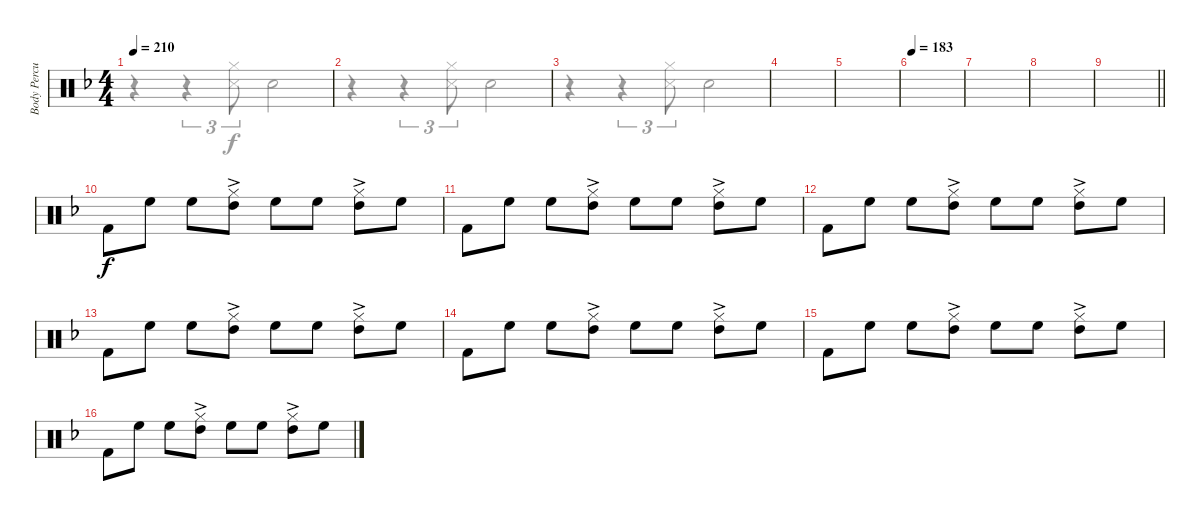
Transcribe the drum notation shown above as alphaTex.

\track ("Body Percussion" "Body Percu") {instrument percussion}
\staff {score}
\articulation defaults
\voice
\ts (4 4)
\tempo 210
\clef neutral
\ks dminor
|
|
|
|
|
\tempo 183
|
|
|
\barLineRight lightlight
|
"Kick (hit) 2".8{dy f} "High Floor Tom (hit)".8 "High Floor Tom (hit)".8 ("Hi-Hat (closed)" "High Tom (hit)"{ac}).8 "High Floor Tom (hit)".8 "High Floor Tom (hit)".8 ("Hi-Hat (closed)" "High Tom (hit)"{ac}).8 "High Floor Tom (hit)".8 |
"Kick (hit) 2".8 "High Floor Tom (hit)".8 "High Floor Tom (hit)".8 ("Hi-Hat (closed)" "High Tom (hit)"{ac}).8 "High Floor Tom (hit)".8 "High Floor Tom (hit)".8 ("Hi-Hat (closed)" "High Tom (hit)"{ac}).8 "High Floor Tom (hit)".8 |
"Kick (hit) 2".8 "High Floor Tom (hit)".8 "High Floor Tom (hit)".8 ("Hi-Hat (closed)" "High Tom (hit)"{ac}).8 "High Floor Tom (hit)".8 "High Floor Tom (hit)".8 ("Hi-Hat (closed)" "High Tom (hit)"{ac}).8 "High Floor Tom (hit)".8 |
"Kick (hit) 2".8 "High Floor Tom (hit)".8 "High Floor Tom (hit)".8 ("Hi-Hat (closed)" "High Tom (hit)"{ac}).8 "High Floor Tom (hit)".8 "High Floor Tom (hit)".8 ("Hi-Hat (closed)" "High Tom (hit)"{ac}).8 "High Floor Tom (hit)".8 |
"Kick (hit) 2".8 "High Floor Tom (hit)".8 "High Floor Tom (hit)".8 ("Hi-Hat (closed)" "High Tom (hit)"{ac}).8 "High Floor Tom (hit)".8 "High Floor Tom (hit)".8 ("Hi-Hat (closed)" "High Tom (hit)"{ac}).8 "High Floor Tom (hit)".8 |
"Kick (hit) 2".8 "High Floor Tom (hit)".8 "High Floor Tom (hit)".8 ("Hi-Hat (closed)" "High Tom (hit)"{ac}).8 "High Floor Tom (hit)".8 "High Floor Tom (hit)".8 ("Hi-Hat (closed)" "High Tom (hit)"{ac}).8 "High Floor Tom (hit)".8 |
"Kick (hit) 2".8 "High Floor Tom (hit)".8 "High Floor Tom (hit)".8 ("Hi-Hat (closed)" "High Tom (hit)"{ac}).8 "High Floor Tom (hit)".8 "High Floor Tom (hit)".8 ("Hi-Hat (closed)" "High Tom (hit)"{ac}).8 "High Floor Tom (hit)".8
\voice
\clef neutral
\ottava regular
\simile none
\ks dminor
r.4{dy f} r.4{tu (3 2)} ("Snare (side stick) 3" "Hi-Hat (closed)").8{tu (3 2)} "Snare (hit) 2".2 |
r.4 r.4{tu (3 2)} ("Snare (side stick) 3" "Hi-Hat (closed)").8{tu (3 2)} "Snare (hit) 2".2 |
r.4 r.4{tu (3 2)} ("Snare (side stick) 3" "Hi-Hat (closed)").8{tu (3 2)} "Snare (hit) 2".2 |
|
|
|
|
|
\barLineRight lightlight
|
|
|
|
|
|
|
